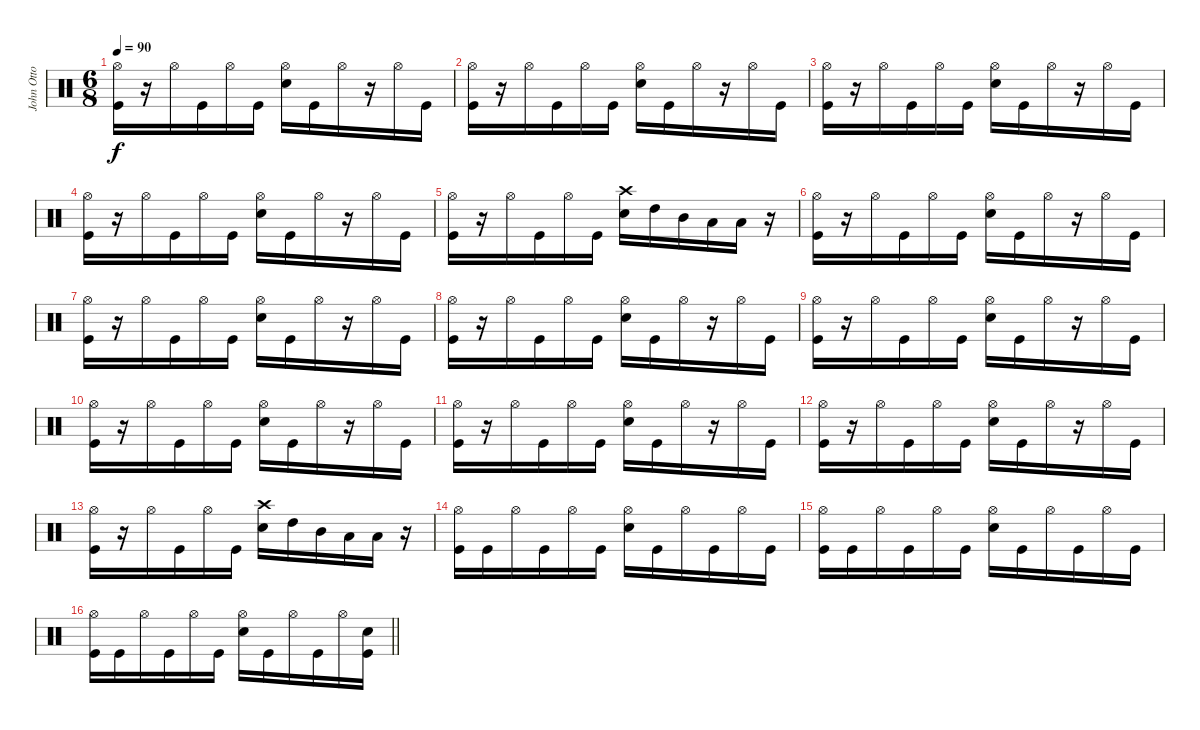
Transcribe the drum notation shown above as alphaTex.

\track ("John Otto" "John Otto") {instrument percussion}
\staff {score}
\articulation defaults
\ts (6 8)
\tempo 90
\clef neutral
\ks c
("Hi-Hat (open)" "Kick (hit)").16{dy f} r.16 "Hi-Hat (open)".16 "Kick (hit)".16 "Hi-Hat (open)".16 "Kick (hit)".16 ("Hi-Hat (open)" "Electric Snare (hit)").16 "Kick (hit)".16 "Hi-Hat (open)".16 r.16 "Hi-Hat (open)".16 "Kick (hit)".16 |
("Hi-Hat (open)" "Kick (hit)").16 r.16 "Hi-Hat (open)".16 "Kick (hit)".16 "Hi-Hat (open)".16 "Kick (hit)".16 ("Hi-Hat (open)" "Electric Snare (hit)").16 "Kick (hit)".16 "Hi-Hat (open)".16 r.16 "Hi-Hat (open)".16 "Kick (hit)".16 |
("Hi-Hat (open)" "Kick (hit)").16 r.16 "Hi-Hat (open)".16 "Kick (hit)".16 "Hi-Hat (open)".16 "Kick (hit)".16 ("Hi-Hat (open)" "Electric Snare (hit)").16 "Kick (hit)".16 "Hi-Hat (open)".16 r.16 "Hi-Hat (open)".16 "Kick (hit)".16 |
("Hi-Hat (open)" "Kick (hit)").16 r.16 "Hi-Hat (open)".16 "Kick (hit)".16 "Hi-Hat (open)".16 "Kick (hit)".16 ("Hi-Hat (open)" "Electric Snare (hit)").16 "Kick (hit)".16 "Hi-Hat (open)".16 r.16 "Hi-Hat (open)".16 "Kick (hit)".16 |
("Hi-Hat (open)" "Kick (hit)").16 r.16 "Hi-Hat (open)".16 "Kick (hit)".16 "Hi-Hat (open)".16 "Kick (hit)".16 ("Crash high (hit)" "Electric Snare (hit)").16 "High Tom (hit)".16 "Mid Tom (hit)".16 "Low Tom (hit)".16 "Low Floor Tom (hit)".16 r.16 |
("Hi-Hat (open)" "Kick (hit)").16 r.16 "Hi-Hat (open)".16 "Kick (hit)".16 "Hi-Hat (open)".16 "Kick (hit)".16 ("Hi-Hat (open)" "Electric Snare (hit)").16 "Kick (hit)".16 "Hi-Hat (open)".16 r.16 "Hi-Hat (open)".16 "Kick (hit)".16 |
("Hi-Hat (open)" "Kick (hit)").16 r.16 "Hi-Hat (open)".16 "Kick (hit)".16 "Hi-Hat (open)".16 "Kick (hit)".16 ("Hi-Hat (open)" "Electric Snare (hit)").16 "Kick (hit)".16 "Hi-Hat (open)".16 r.16 "Hi-Hat (open)".16 "Kick (hit)".16 |
("Hi-Hat (open)" "Kick (hit)").16 r.16 "Hi-Hat (open)".16 "Kick (hit)".16 "Hi-Hat (open)".16 "Kick (hit)".16 ("Hi-Hat (open)" "Electric Snare (hit)").16 "Kick (hit)".16 "Hi-Hat (open)".16 r.16 "Hi-Hat (open)".16 "Kick (hit)".16 |
("Hi-Hat (open)" "Kick (hit)").16 r.16 "Hi-Hat (open)".16 "Kick (hit)".16 "Hi-Hat (open)".16 "Kick (hit)".16 ("Hi-Hat (open)" "Electric Snare (hit)").16 "Kick (hit)".16 "Hi-Hat (open)".16 r.16 "Hi-Hat (open)".16 "Kick (hit)".16 |
("Hi-Hat (open)" "Kick (hit)").16 r.16 "Hi-Hat (open)".16 "Kick (hit)".16 "Hi-Hat (open)".16 "Kick (hit)".16 ("Hi-Hat (open)" "Electric Snare (hit)").16 "Kick (hit)".16 "Hi-Hat (open)".16 r.16 "Hi-Hat (open)".16 "Kick (hit)".16 |
("Hi-Hat (open)" "Kick (hit)").16 r.16 "Hi-Hat (open)".16 "Kick (hit)".16 "Hi-Hat (open)".16 "Kick (hit)".16 ("Hi-Hat (open)" "Electric Snare (hit)").16 "Kick (hit)".16 "Hi-Hat (open)".16 r.16 "Hi-Hat (open)".16 "Kick (hit)".16 |
("Hi-Hat (open)" "Kick (hit)").16 r.16 "Hi-Hat (open)".16 "Kick (hit)".16 "Hi-Hat (open)".16 "Kick (hit)".16 ("Hi-Hat (open)" "Electric Snare (hit)").16 "Kick (hit)".16 "Hi-Hat (open)".16 r.16 "Hi-Hat (open)".16 "Kick (hit)".16 |
("Hi-Hat (open)" "Kick (hit)").16 r.16 "Hi-Hat (open)".16 "Kick (hit)".16 "Hi-Hat (open)".16 "Kick (hit)".16 ("Crash high (hit)" "Electric Snare (hit)").16 "High Tom (hit)".16 "Mid Tom (hit)".16 "Low Tom (hit)".16 "Low Floor Tom (hit)".16 r.16 |
("Hi-Hat (open)" "Kick (hit)").16 "Kick (hit)".16 "Hi-Hat (open)".16 "Kick (hit)".16 "Hi-Hat (open)".16 "Kick (hit)".16 ("Hi-Hat (open)" "Electric Snare (hit)").16 "Kick (hit)".16 "Hi-Hat (open)".16 "Kick (hit)".16 "Hi-Hat (open)".16 "Kick (hit)".16 |
("Hi-Hat (open)" "Kick (hit)").16 "Kick (hit)".16 "Hi-Hat (open)".16 "Kick (hit)".16 "Hi-Hat (open)".16 "Kick (hit)".16 ("Hi-Hat (open)" "Electric Snare (hit)").16 "Kick (hit)".16 "Hi-Hat (open)".16 "Kick (hit)".16 "Hi-Hat (open)".16 "Kick (hit)".16 |
\barLineRight lightlight
("Hi-Hat (open)" "Kick (hit)").16 "Kick (hit)".16 "Hi-Hat (open)".16 "Kick (hit)".16 "Hi-Hat (open)".16 "Kick (hit)".16 ("Hi-Hat (open)" "Electric Snare (hit)").16 "Kick (hit)".16 "Hi-Hat (open)".16 "Kick (hit)".16 "Hi-Hat (open)".16 ("Electric Snare (hit)" "Kick (hit)").16
